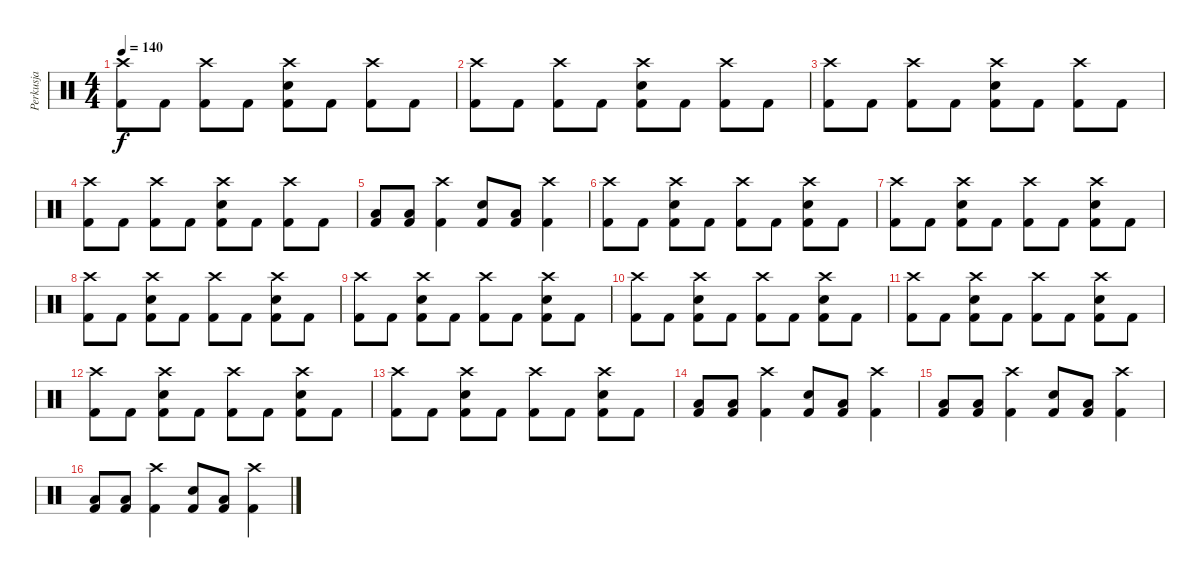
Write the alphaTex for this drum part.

\track ("Perkusja" "Perkusja") {instrument percussion}
\staff {score}
\articulation defaults
\ts (4 4)
\tempo 140
\clef neutral
\ks c
("Crash high (hit)" "Kick (hit) 2").8{dy f} "Kick (hit) 2".8 ("Crash high (hit)" "Kick (hit) 2").8 "Kick (hit) 2".8 ("Crash high (hit)" "Electric Snare (hit)" "Kick (hit) 2").8 "Kick (hit) 2".8 ("Crash high (hit)" "Kick (hit) 2").8 "Kick (hit) 2".8 |
("Crash high (hit)" "Kick (hit) 2").8 "Kick (hit) 2".8 ("Crash high (hit)" "Kick (hit) 2").8 "Kick (hit) 2".8 ("Crash high (hit)" "Electric Snare (hit)" "Kick (hit) 2").8 "Kick (hit) 2".8 ("Crash high (hit)" "Kick (hit) 2").8 "Kick (hit) 2".8 |
("Crash high (hit)" "Kick (hit) 2").8 "Kick (hit) 2".8 ("Crash high (hit)" "Kick (hit) 2").8 "Kick (hit) 2".8 ("Crash high (hit)" "Electric Snare (hit)" "Kick (hit) 2").8 "Kick (hit) 2".8 ("Crash high (hit)" "Kick (hit) 2").8 "Kick (hit) 2".8 |
("Crash high (hit)" "Kick (hit) 2").8 "Kick (hit) 2".8 ("Crash high (hit)" "Kick (hit) 2").8 "Kick (hit) 2".8 ("Crash high (hit)" "Electric Snare (hit)" "Kick (hit) 2").8 "Kick (hit) 2".8 ("Crash high (hit)" "Kick (hit) 2").8 "Kick (hit) 2".8 |
("Low Floor Tom (hit)" "Kick (hit) 2").8 ("Low Floor Tom (hit)" "Kick (hit) 2").8 ("Crash high (hit)" "Kick (hit) 2").4 ("Electric Snare (hit)" "Kick (hit) 2").8 ("Low Floor Tom (hit)" "Kick (hit) 2").8 ("Crash high (hit)" "Kick (hit) 2").4 |
("Crash high (hit)" "Kick (hit) 2").8 "Kick (hit) 2".8 ("Crash high (hit)" "Electric Snare (hit)" "Kick (hit) 2").8 "Kick (hit) 2".8 ("Crash high (hit)" "Kick (hit) 2").8 "Kick (hit) 2".8 ("Crash high (hit)" "Electric Snare (hit)" "Kick (hit) 2").8 "Kick (hit) 2".8 |
("Crash high (hit)" "Kick (hit) 2").8 "Kick (hit) 2".8 ("Crash high (hit)" "Electric Snare (hit)" "Kick (hit) 2").8 "Kick (hit) 2".8 ("Crash high (hit)" "Kick (hit) 2").8 "Kick (hit) 2".8 ("Crash high (hit)" "Electric Snare (hit)" "Kick (hit) 2").8 "Kick (hit) 2".8 |
("Crash high (hit)" "Kick (hit) 2").8 "Kick (hit) 2".8 ("Crash high (hit)" "Electric Snare (hit)" "Kick (hit) 2").8 "Kick (hit) 2".8 ("Crash high (hit)" "Kick (hit) 2").8 "Kick (hit) 2".8 ("Crash high (hit)" "Electric Snare (hit)" "Kick (hit) 2").8 "Kick (hit) 2".8 |
("Crash high (hit)" "Kick (hit) 2").8 "Kick (hit) 2".8 ("Crash high (hit)" "Electric Snare (hit)" "Kick (hit) 2").8 "Kick (hit) 2".8 ("Crash high (hit)" "Kick (hit) 2").8 "Kick (hit) 2".8 ("Crash high (hit)" "Electric Snare (hit)" "Kick (hit) 2").8 "Kick (hit) 2".8 |
("Crash high (hit)" "Kick (hit) 2").8 "Kick (hit) 2".8 ("Crash high (hit)" "Electric Snare (hit)" "Kick (hit) 2").8 "Kick (hit) 2".8 ("Crash high (hit)" "Kick (hit) 2").8 "Kick (hit) 2".8 ("Crash high (hit)" "Electric Snare (hit)" "Kick (hit) 2").8 "Kick (hit) 2".8 |
("Crash high (hit)" "Kick (hit) 2").8 "Kick (hit) 2".8 ("Crash high (hit)" "Electric Snare (hit)" "Kick (hit) 2").8 "Kick (hit) 2".8 ("Crash high (hit)" "Kick (hit) 2").8 "Kick (hit) 2".8 ("Crash high (hit)" "Electric Snare (hit)" "Kick (hit) 2").8 "Kick (hit) 2".8 |
("Crash high (hit)" "Kick (hit) 2").8 "Kick (hit) 2".8 ("Crash high (hit)" "Electric Snare (hit)" "Kick (hit) 2").8 "Kick (hit) 2".8 ("Crash high (hit)" "Kick (hit) 2").8 "Kick (hit) 2".8 ("Crash high (hit)" "Electric Snare (hit)" "Kick (hit) 2").8 "Kick (hit) 2".8 |
("Crash high (hit)" "Kick (hit) 2").8 "Kick (hit) 2".8 ("Crash high (hit)" "Electric Snare (hit)" "Kick (hit) 2").8 "Kick (hit) 2".8 ("Crash high (hit)" "Kick (hit) 2").8 "Kick (hit) 2".8 ("Crash high (hit)" "Electric Snare (hit)" "Kick (hit) 2").8 "Kick (hit) 2".8 |
("Low Floor Tom (hit)" "Kick (hit) 2").8 ("Low Floor Tom (hit)" "Kick (hit) 2").8 ("Crash high (hit)" "Kick (hit) 2").4 ("Electric Snare (hit)" "Kick (hit) 2").8 ("Low Floor Tom (hit)" "Kick (hit) 2").8 ("Crash high (hit)" "Kick (hit) 2").4 |
("Low Floor Tom (hit)" "Kick (hit) 2").8 ("Low Floor Tom (hit)" "Kick (hit) 2").8 ("Crash high (hit)" "Kick (hit) 2").4 ("Electric Snare (hit)" "Kick (hit) 2").8 ("Low Floor Tom (hit)" "Kick (hit) 2").8 ("Crash high (hit)" "Kick (hit) 2").4 |
("Low Floor Tom (hit)" "Kick (hit) 2").8 ("Low Floor Tom (hit)" "Kick (hit) 2").8 ("Crash high (hit)" "Kick (hit) 2").4 ("Electric Snare (hit)" "Kick (hit) 2").8 ("Low Floor Tom (hit)" "Kick (hit) 2").8 ("Crash high (hit)" "Kick (hit) 2").4
